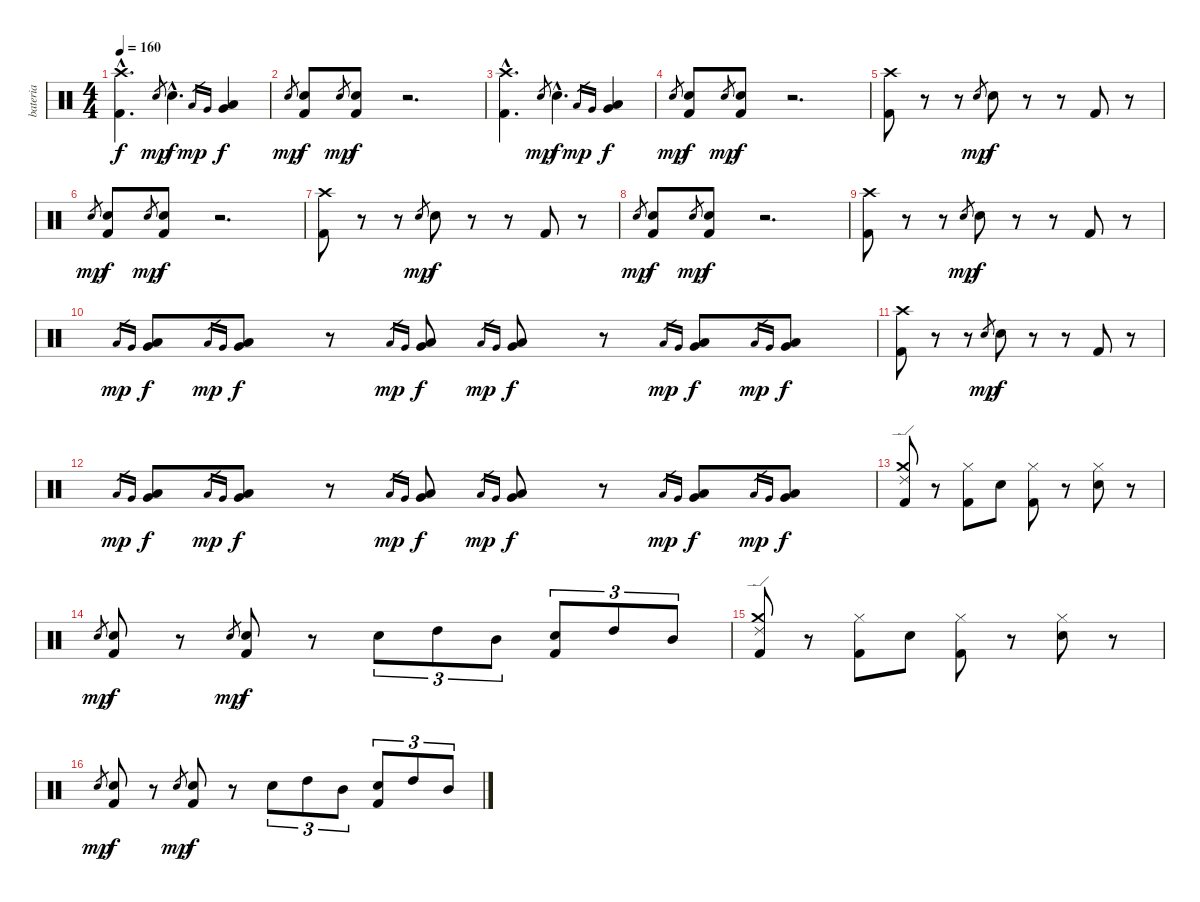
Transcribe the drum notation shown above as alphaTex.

\track ("bateria" "bateria") {instrument percussion}
\staff {score}
\articulation defaults
\ts (4 4)
\tempo 160
\clef neutral
\ks c
("Crash high (hit)"{hac} "Kick (hit) 2"{hac}).4{d dy f} "Electric Snare (hit)".8{gr dy mp} "Electric Snare (hit)"{hac}.4{d dy f} "Low Tom (hit)".16{gr dy mp} "Very Low Tom (hit)".16{gr} ("Low Tom (hit)" "Very Low Tom (hit)").4{dy f} |
"Electric Snare (hit)".8{gr dy mp} ("Electric Snare (hit)" "Kick (hit) 2").8{dy f} "Electric Snare (hit)".8{gr dy mp} ("Electric Snare (hit)" "Kick (hit) 2").8{dy f} r.2{d} |
("Crash high (hit)"{hac} "Kick (hit) 2"{hac}).4{d} "Electric Snare (hit)".8{gr dy mp} "Electric Snare (hit)"{hac}.4{d dy f} "Low Tom (hit)".16{gr dy mp} "Very Low Tom (hit)".16{gr} ("Low Tom (hit)" "Very Low Tom (hit)").4{dy f} |
"Electric Snare (hit)".8{gr dy mp} ("Electric Snare (hit)" "Kick (hit) 2").8{dy f} "Electric Snare (hit)".8{gr dy mp} ("Electric Snare (hit)" "Kick (hit) 2").8{dy f} r.2{d} |
("Crash high (hit)" "Kick (hit) 2").8 r.8 r.8 "Electric Snare (hit)".8{gr dy mp} "Electric Snare (hit)".8{dy f} r.8 r.8 "Kick (hit) 2".8 r.8 |
"Electric Snare (hit)".8{gr dy mp} ("Electric Snare (hit)" "Kick (hit) 2").8{dy f} "Electric Snare (hit)".8{gr dy mp} ("Electric Snare (hit)" "Kick (hit) 2").8{dy f} r.2{d} |
("Crash high (hit)" "Kick (hit) 2").8 r.8 r.8 "Electric Snare (hit)".8{gr dy mp} "Electric Snare (hit)".8{dy f} r.8 r.8 "Kick (hit) 2".8 r.8 |
"Electric Snare (hit)".8{gr dy mp} ("Electric Snare (hit)" "Kick (hit) 2").8{dy f} "Electric Snare (hit)".8{gr dy mp} ("Electric Snare (hit)" "Kick (hit) 2").8{dy f} r.2{d} |
("Crash high (hit)" "Kick (hit) 2").8 r.8 r.8 "Electric Snare (hit)".8{gr dy mp} "Electric Snare (hit)".8{dy f} r.8 r.8 "Kick (hit) 2".8 r.8 |
"Low Tom (hit)".16{gr dy mp} "Very Low Tom (hit)".16{gr} ("Low Tom (hit)" "Very Low Tom (hit)").8{dy f} "Low Tom (hit)".16{gr dy mp} "Very Low Tom (hit)".16{gr} ("Low Tom (hit)" "Very Low Tom (hit)").8{dy f} r.8 "Low Tom (hit)".16{gr dy mp} "Very Low Tom (hit)".16{gr} ("Low Tom (hit)" "Very Low Tom (hit)").8{dy f} "Low Tom (hit)".16{gr dy mp} "Very Low Tom (hit)".16{gr} ("Low Tom (hit)" "Very Low Tom (hit)").8{dy f} r.8 "Low Tom (hit)".16{gr dy mp} "Very Low Tom (hit)".16{gr} ("Low Tom (hit)" "Very Low Tom (hit)").8{dy f} "Low Tom (hit)".16{gr dy mp} "Very Low Tom (hit)".16{gr} ("Low Tom (hit)" "Very Low Tom (hit)").8{dy f} |
("Crash high (hit)" "Kick (hit) 2").8 r.8 r.8 "Electric Snare (hit)".8{gr dy mp} "Electric Snare (hit)".8{dy f} r.8 r.8 "Kick (hit) 2".8 r.8 |
"Low Tom (hit)".16{gr dy mp} "Very Low Tom (hit)".16{gr} ("Low Tom (hit)" "Very Low Tom (hit)").8{dy f} "Low Tom (hit)".16{gr dy mp} "Very Low Tom (hit)".16{gr} ("Low Tom (hit)" "Very Low Tom (hit)").8{dy f} r.8 "Low Tom (hit)".16{gr dy mp} "Very Low Tom (hit)".16{gr} ("Low Tom (hit)" "Very Low Tom (hit)").8{dy f} "Low Tom (hit)".16{gr dy mp} "Very Low Tom (hit)".16{gr} ("Low Tom (hit)" "Very Low Tom (hit)").8{dy f} r.8 "Low Tom (hit)".16{gr dy mp} "Very Low Tom (hit)".16{gr} ("Low Tom (hit)" "Very Low Tom (hit)").8{dy f} "Low Tom (hit)".16{gr dy mp} "Very Low Tom (hit)".16{gr} ("Low Tom (hit)" "Very Low Tom (hit)").8{dy f} |
("Crash medium (hit)" "Ride (edge) 2" "Kick (hit) 2").8 r.8 ("Hi-Hat (closed)" "Kick (hit) 2").8 "Electric Snare (hit)".8 ("Hi-Hat (closed)" "Kick (hit) 2").8 r.8 ("Hi-Hat (closed)" "Electric Snare (hit)").8 r.8 |
"Electric Snare (hit)".8{gr dy mp} ("Electric Snare (hit)" "Kick (hit) 2").8{dy f} r.8 "Electric Snare (hit)".8{gr dy mp} ("Electric Snare (hit)" "Kick (hit) 2").8{dy f} r.8 "Electric Snare (hit)".8{tu (3 2)} "High Tom (hit)".8{tu (3 2)} "Mid Tom (hit)".8{tu (3 2)} ("Electric Snare (hit)" "Kick (hit) 2").8{tu (3 2)} "High Tom (hit)".8{tu (3 2)} "Mid Tom (hit)".8{tu (3 2)} |
("Crash medium (hit)" "Ride (edge) 2" "Kick (hit) 2").8 r.8 ("Hi-Hat (closed)" "Kick (hit) 2").8 "Electric Snare (hit)".8 ("Hi-Hat (closed)" "Kick (hit) 2").8 r.8 ("Hi-Hat (closed)" "Electric Snare (hit)").8 r.8 |
"Electric Snare (hit)".8{gr dy mp} ("Electric Snare (hit)" "Kick (hit) 2").8{dy f} r.8 "Electric Snare (hit)".8{gr dy mp} ("Electric Snare (hit)" "Kick (hit) 2").8{dy f} r.8 "Electric Snare (hit)".8{tu (3 2)} "High Tom (hit)".8{tu (3 2)} "Mid Tom (hit)".8{tu (3 2)} ("Electric Snare (hit)" "Kick (hit) 2").8{tu (3 2)} "High Tom (hit)".8{tu (3 2)} "Mid Tom (hit)".8{tu (3 2)}
